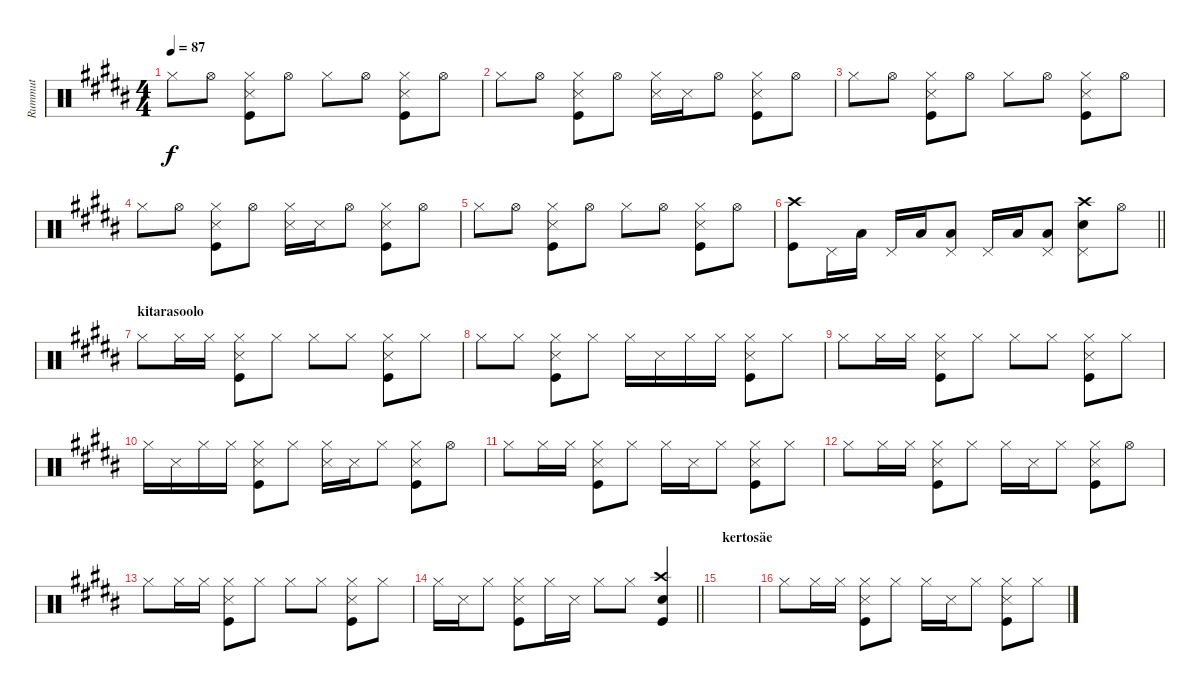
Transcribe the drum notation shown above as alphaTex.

\track ("Rummut" "Rummut") {instrument percussion}
\staff {score}
\articulation defaults
\ts (4 4)
\tempo 87
\clef neutral
\ks g#minor "Hi-Hat (closed)".8{dy f} "Hi-Hat (open)".8
("Hi-Hat (closed)" "Snare (side stick) 3" "Kick (hit)").8 "Hi-Hat (open)".8 "Hi-Hat (closed)".8 "Hi-Hat (open)".8 ("Hi-Hat (closed)" "Snare (side stick) 3" "Kick (hit)").8 "Hi-Hat (open)".8 |
"Hi-Hat (closed)".8 "Hi-Hat (open)".8 ("Hi-Hat (closed)" "Snare (side stick) 3" "Kick (hit)").8 "Hi-Hat (open)".8 ("Hi-Hat (closed)" "Snare (side stick) 3").16 "Snare (side stick) 3".16 "Hi-Hat (open)".8 ("Hi-Hat (closed)" "Snare (side stick) 3" "Kick (hit)").8 "Hi-Hat (open)".8 |
"Hi-Hat (closed)".8 "Hi-Hat (open)".8 ("Hi-Hat (closed)" "Snare (side stick) 3" "Kick (hit)").8 "Hi-Hat (open)".8 "Hi-Hat (closed)".8 "Hi-Hat (open)".8 ("Hi-Hat (closed)" "Snare (side stick) 3" "Kick (hit)").8 "Hi-Hat (open)".8 |
"Hi-Hat (closed)".8 "Hi-Hat (open)".8 ("Hi-Hat (closed)" "Snare (side stick) 3" "Kick (hit)").8 "Hi-Hat (open)".8 ("Hi-Hat (closed)" "Snare (side stick) 3").16 "Snare (side stick) 3".16 "Hi-Hat (open)".8 ("Hi-Hat (closed)" "Snare (side stick) 3" "Kick (hit)").8 "Hi-Hat (open)".8 |
"Hi-Hat (closed)".8 "Hi-Hat (open)".8 ("Hi-Hat (closed)" "Snare (side stick) 3" "Kick (hit)").8 "Hi-Hat (open)".8 "Hi-Hat (closed)".8 "Hi-Hat (open)".8 ("Hi-Hat (closed)" "Snare (side stick) 3" "Kick (hit)").8 "Hi-Hat (open)".8 |
\barLineRight lightlight
("Crash high (hit)" "Kick (hit)").8 "Pedal Hi-Hat (hit)".16 "Low Tom (hit)".16 "Pedal Hi-Hat (hit)".16 "Low Tom (hit)".16 ("Pedal Hi-Hat (hit)" "Low Tom (hit)").8 "Pedal Hi-Hat (hit)".16 "Low Floor Tom (hit)".16 ("Pedal Hi-Hat (hit)" "Low Floor Tom (hit)").8 ("Pedal Hi-Hat (hit)" "Crash high (hit)" "Snare (hit) 2").8 "Hi-Hat (open)".8 |
\section ("" "kitarasoolo")
"Hi-Hat (closed)".8 "Hi-Hat (closed)".16 "Hi-Hat (closed)".16 ("Hi-Hat (closed)" "Snare (side stick) 3" "Kick (hit)").8 "Hi-Hat (closed)".8 "Hi-Hat (closed)".8 "Hi-Hat (closed)".8 ("Hi-Hat (closed)" "Snare (side stick) 3" "Kick (hit)").8 "Hi-Hat (closed)".8 |
"Hi-Hat (closed)".8 "Hi-Hat (closed)".8 ("Hi-Hat (closed)" "Snare (side stick) 3" "Kick (hit)").8 "Hi-Hat (closed)".8 "Hi-Hat (closed)".16 "Snare (side stick) 3".16 "Hi-Hat (closed)".16 "Hi-Hat (closed)".16 ("Hi-Hat (closed)" "Snare (side stick) 3" "Kick (hit)").8 "Hi-Hat (closed)".8 |
"Hi-Hat (closed)".8 "Hi-Hat (closed)".16 "Hi-Hat (closed)".16 ("Hi-Hat (closed)" "Snare (side stick) 3" "Kick (hit)").8 "Hi-Hat (closed)".8 "Hi-Hat (closed)".8 "Hi-Hat (closed)".8 ("Hi-Hat (closed)" "Snare (side stick) 3" "Kick (hit)").8 "Hi-Hat (closed)".8 |
"Hi-Hat (closed)".16 "Snare (side stick) 3".16 "Hi-Hat (closed)".16 "Hi-Hat (closed)".16 ("Hi-Hat (closed)" "Snare (side stick) 3" "Kick (hit)").8 "Hi-Hat (closed)".8 ("Hi-Hat (closed)" "Snare (side stick) 3").16 "Snare (side stick) 3".16 "Hi-Hat (closed)".8 ("Hi-Hat (closed)" "Snare (side stick) 3" "Kick (hit)").8 "Hi-Hat (open)".8 |
"Hi-Hat (closed)".8 "Hi-Hat (closed)".16 "Hi-Hat (closed)".16 ("Hi-Hat (closed)" "Snare (side stick) 3" "Kick (hit)").8 "Hi-Hat (closed)".8 "Hi-Hat (closed)".16 "Snare (side stick) 3".16 "Hi-Hat (closed)".8 ("Hi-Hat (closed)" "Snare (side stick) 3" "Kick (hit)").8 "Hi-Hat (closed)".8 |
"Hi-Hat (closed)".8 "Hi-Hat (closed)".16 "Hi-Hat (closed)".16 ("Hi-Hat (closed)" "Snare (side stick) 3" "Kick (hit)").8 "Hi-Hat (closed)".8 "Hi-Hat (closed)".16 "Snare (side stick) 3".16 "Hi-Hat (closed)".8 ("Hi-Hat (closed)" "Snare (side stick) 3" "Kick (hit)").8 "Hi-Hat (open)".8 |
"Hi-Hat (closed)".8 "Hi-Hat (closed)".16 "Hi-Hat (closed)".16 ("Hi-Hat (closed)" "Snare (side stick) 3" "Kick (hit)").8 "Hi-Hat (closed)".8 "Hi-Hat (closed)".8 "Hi-Hat (closed)".8 ("Hi-Hat (closed)" "Snare (side stick) 3" "Kick (hit)").8 "Hi-Hat (closed)".8 |
\barLineRight lightlight "Hi-Hat (closed)".16 "Snare (side stick) 3".16 "Hi-Hat (closed)".8
("Hi-Hat (closed)" "Snare (side stick) 3" "Kick (hit)").8 "Hi-Hat (closed)".16 "Snare (side stick) 3".16 "Hi-Hat (closed)".8 "Hi-Hat (closed)".8 ("Crash high (hit)" "Snare (hit) 2" "Kick (hit)").4 |
\section ("" "kertosäe")
|
"Hi-Hat (closed)".8 "Hi-Hat (closed)".16 "Hi-Hat (closed)".16 ("Hi-Hat (closed)" "Snare (side stick) 3" "Kick (hit)").8 "Hi-Hat (closed)".8 "Hi-Hat (closed)".16 "Snare (side stick) 3".16 "Hi-Hat (closed)".8 ("Hi-Hat (closed)" "Snare (side stick) 3" "Kick (hit)").8 "Hi-Hat (closed)".8
